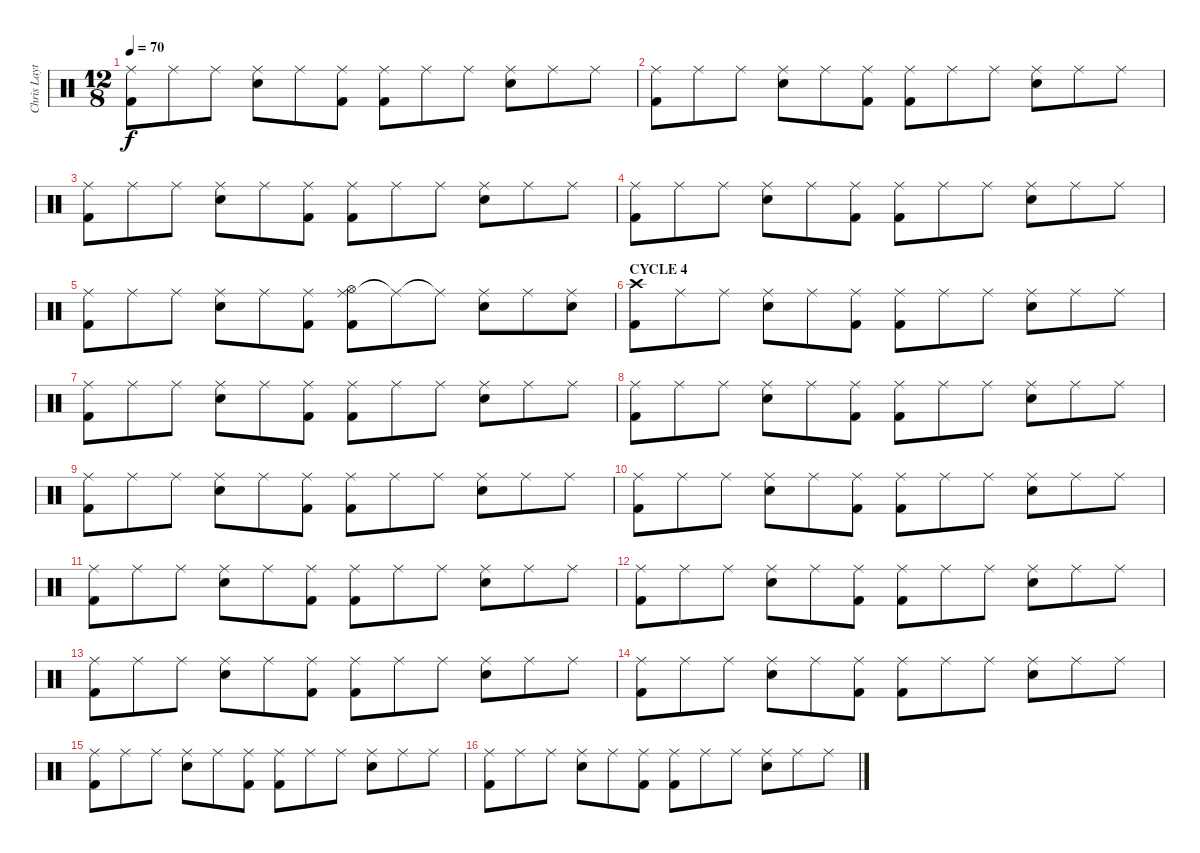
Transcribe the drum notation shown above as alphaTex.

\track ("Chris Layton" "Chris Layt") {instrument percussion}
\staff {score}
\articulation defaults
\ts (12 8)
\tempo 70
\clef neutral
\ks c
("Ride (middle)" "Kick (hit) 2").8{dy f} "Ride (middle)".8 "Ride (middle)".8 ("Ride (middle)" "Snare (hit) 2").8 "Ride (middle)".8 ("Ride (middle)" "Kick (hit) 2").8 ("Ride (middle)" "Kick (hit) 2").8 "Ride (middle)".8 "Ride (middle)".8 ("Ride (middle)" "Snare (hit) 2").8 "Ride (middle)".8 "Ride (middle)".8 |
("Ride (middle)" "Kick (hit) 2").8 "Ride (middle)".8 "Ride (middle)".8 ("Ride (middle)" "Snare (hit) 2").8 "Ride (middle)".8 ("Ride (middle)" "Kick (hit) 2").8 ("Ride (middle)" "Kick (hit) 2").8 "Ride (middle)".8 "Ride (middle)".8 ("Ride (middle)" "Snare (hit) 2").8 "Ride (middle)".8 "Ride (middle)".8 |
("Ride (middle)" "Kick (hit) 2").8 "Ride (middle)".8 "Ride (middle)".8 ("Ride (middle)" "Snare (hit) 2").8 "Ride (middle)".8 ("Ride (middle)" "Kick (hit) 2").8 ("Ride (middle)" "Kick (hit) 2").8 "Ride (middle)".8 "Ride (middle)".8 ("Ride (middle)" "Snare (hit) 2").8 "Ride (middle)".8 "Ride (middle)".8 |
("Ride (middle)" "Kick (hit) 2").8 "Ride (middle)".8 "Ride (middle)".8 ("Ride (middle)" "Snare (hit) 2").8 "Ride (middle)".8 ("Ride (middle)" "Kick (hit) 2").8 ("Ride (middle)" "Kick (hit) 2").8 "Ride (middle)".8 "Ride (middle)".8 ("Ride (middle)" "Snare (hit) 2").8 "Ride (middle)".8 "Ride (middle)".8 |
("Ride (middle)" "Kick (hit) 2").8 "Ride (middle)".8 "Ride (middle)".8 ("Ride (middle)" "Snare (hit) 2").8 "Ride (middle)".8 ("Ride (middle)" "Kick (hit) 2").8 ("Ride (middle)" "Hi-Hat (open)" "Kick (hit) 2").8 "Ride (middle)"{t}.8 "Ride (middle)"{t}.8 ("Ride (middle)" "Snare (hit) 2").8 "Ride (middle)".8 ("Ride (middle)" "Snare (hit) 2").8 |
\section ("" "CYCLE 4")
("Crash high (hit)" "Kick (hit) 2").8 "Ride (middle)".8 "Ride (middle)".8 ("Ride (middle)" "Snare (hit) 2").8 "Ride (middle)".8 ("Ride (middle)" "Kick (hit) 2").8 ("Ride (middle)" "Kick (hit) 2").8 "Ride (middle)".8 "Ride (middle)".8 ("Ride (middle)" "Snare (hit) 2").8 "Ride (middle)".8 "Ride (middle)".8 |
("Ride (middle)" "Kick (hit) 2").8 "Ride (middle)".8 "Ride (middle)".8 ("Ride (middle)" "Snare (hit) 2").8 "Ride (middle)".8 ("Ride (middle)" "Kick (hit) 2").8 ("Ride (middle)" "Kick (hit) 2").8 "Ride (middle)".8 "Ride (middle)".8 ("Ride (middle)" "Snare (hit) 2").8 "Ride (middle)".8 "Ride (middle)".8 |
("Ride (middle)" "Kick (hit) 2").8 "Ride (middle)".8 "Ride (middle)".8 ("Ride (middle)" "Snare (hit) 2").8 "Ride (middle)".8 ("Ride (middle)" "Kick (hit) 2").8 ("Ride (middle)" "Kick (hit) 2").8 "Ride (middle)".8 "Ride (middle)".8 ("Ride (middle)" "Snare (hit) 2").8 "Ride (middle)".8 "Ride (middle)".8 |
("Ride (middle)" "Kick (hit) 2").8 "Ride (middle)".8 "Ride (middle)".8 ("Ride (middle)" "Snare (hit) 2").8 "Ride (middle)".8 ("Ride (middle)" "Kick (hit) 2").8 ("Ride (middle)" "Kick (hit) 2").8 "Ride (middle)".8 "Ride (middle)".8 ("Ride (middle)" "Snare (hit) 2").8 "Ride (middle)".8 "Ride (middle)".8 |
("Ride (middle)" "Kick (hit) 2").8 "Ride (middle)".8 "Ride (middle)".8 ("Ride (middle)" "Snare (hit) 2").8 "Ride (middle)".8 ("Ride (middle)" "Kick (hit) 2").8 ("Ride (middle)" "Kick (hit) 2").8 "Ride (middle)".8 "Ride (middle)".8 ("Ride (middle)" "Snare (hit) 2").8 "Ride (middle)".8 "Ride (middle)".8 |
("Ride (middle)" "Kick (hit) 2").8 "Ride (middle)".8 "Ride (middle)".8 ("Ride (middle)" "Snare (hit) 2").8 "Ride (middle)".8 ("Ride (middle)" "Kick (hit) 2").8 ("Ride (middle)" "Kick (hit) 2").8 "Ride (middle)".8 "Ride (middle)".8 ("Ride (middle)" "Snare (hit) 2").8 "Ride (middle)".8 "Ride (middle)".8 |
("Ride (middle)" "Kick (hit) 2").8 "Ride (middle)".8 "Ride (middle)".8 ("Ride (middle)" "Snare (hit) 2").8 "Ride (middle)".8 ("Ride (middle)" "Kick (hit) 2").8 ("Ride (middle)" "Kick (hit) 2").8 "Ride (middle)".8 "Ride (middle)".8 ("Ride (middle)" "Snare (hit) 2").8 "Ride (middle)".8 "Ride (middle)".8 |
("Ride (middle)" "Kick (hit) 2").8 "Ride (middle)".8 "Ride (middle)".8 ("Ride (middle)" "Snare (hit) 2").8 "Ride (middle)".8 ("Ride (middle)" "Kick (hit) 2").8 ("Ride (middle)" "Kick (hit) 2").8 "Ride (middle)".8 "Ride (middle)".8 ("Ride (middle)" "Snare (hit) 2").8 "Ride (middle)".8 "Ride (middle)".8 |
("Ride (middle)" "Kick (hit) 2").8 "Ride (middle)".8 "Ride (middle)".8 ("Ride (middle)" "Snare (hit) 2").8 "Ride (middle)".8 ("Ride (middle)" "Kick (hit) 2").8 ("Ride (middle)" "Kick (hit) 2").8 "Ride (middle)".8 "Ride (middle)".8 ("Ride (middle)" "Snare (hit) 2").8 "Ride (middle)".8 "Ride (middle)".8 |
("Ride (middle)" "Kick (hit) 2").8 "Ride (middle)".8 "Ride (middle)".8 ("Ride (middle)" "Snare (hit) 2").8 "Ride (middle)".8 ("Ride (middle)" "Kick (hit) 2").8 ("Ride (middle)" "Kick (hit) 2").8 "Ride (middle)".8 "Ride (middle)".8 ("Ride (middle)" "Snare (hit) 2").8 "Ride (middle)".8 "Ride (middle)".8 |
("Ride (middle)" "Kick (hit) 2").8 "Ride (middle)".8 "Ride (middle)".8 ("Ride (middle)" "Snare (hit) 2").8 "Ride (middle)".8 ("Ride (middle)" "Kick (hit) 2").8 ("Ride (middle)" "Kick (hit) 2").8 "Ride (middle)".8 "Ride (middle)".8 ("Ride (middle)" "Snare (hit) 2").8 "Ride (middle)".8 "Ride (middle)".8
